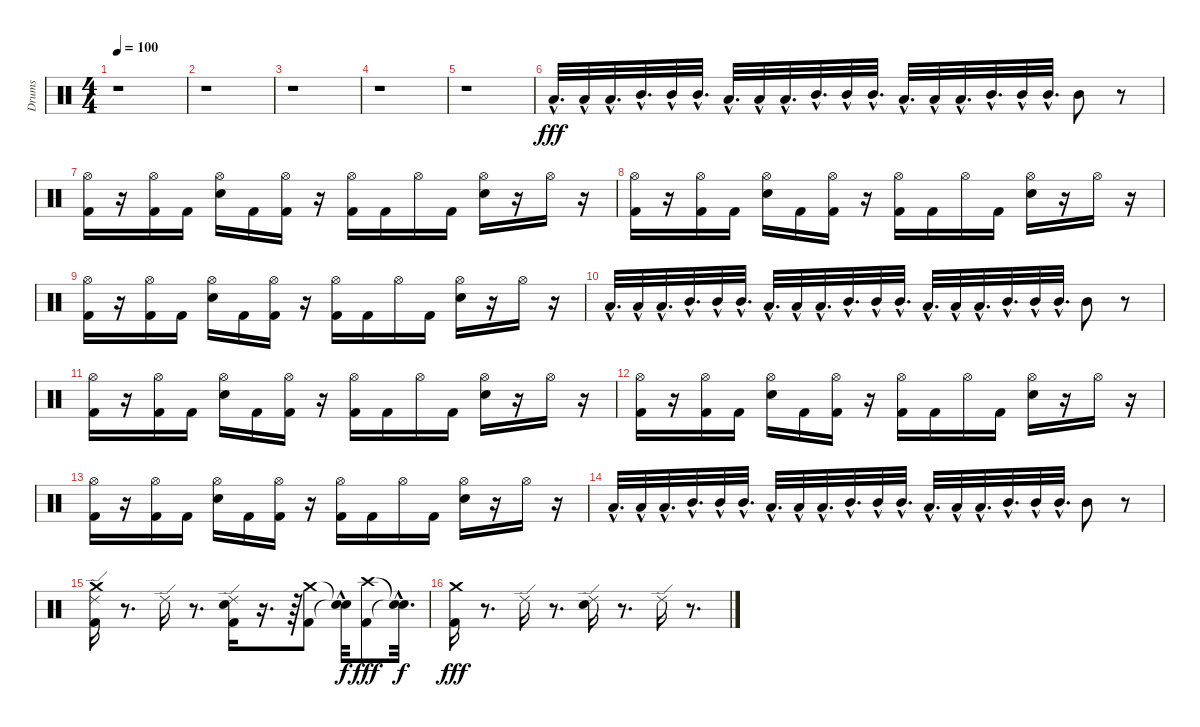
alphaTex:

\track ("Drums" "Drums") {instrument percussion}
\staff {score}
\articulation defaults
\ts (4 4)
\tempo 100
\clef neutral
\ks c
r.1{dy f} |
r.1 |
r.1 |
r.1 |
r.1 |
"Low Tom (hit)"{hac}.32{d dy fff} "Low Tom (hit)"{hac}.32 "Low Tom (hit)"{hac}.32{d} "Mid Tom (hit)"{hac}.32{d} "Mid Tom (hit)"{hac}.32 "Mid Tom (hit)"{hac}.32{d} "Low Tom (hit)"{hac}.32{d} "Low Tom (hit)"{hac}.32 "Low Tom (hit)"{hac}.32{d} "Mid Tom (hit)"{hac}.32{d} "Mid Tom (hit)"{hac}.32 "Mid Tom (hit)"{hac}.32{d} "Low Tom (hit)"{hac}.32{d} "Low Tom (hit)"{hac}.32 "Low Tom (hit)"{hac}.32{d} "Mid Tom (hit)"{hac}.32{d} "Mid Tom (hit)"{hac}.32 "Mid Tom (hit)"{hac}.32{d} "Mid Tom (hit)".8 r.8 |
("Hi-Hat (open)" "Kick (hit) 2").16 r.16 ("Hi-Hat (open)" "Kick (hit) 2").16 "Kick (hit) 2".16 ("Hi-Hat (open)" "Electric Snare (hit)").16 "Kick (hit) 2".16 ("Hi-Hat (open)" "Kick (hit) 2").16 r.16 ("Hi-Hat (open)" "Kick (hit) 2").16 "Kick (hit) 2".16 "Hi-Hat (open)".16 "Kick (hit) 2".16 ("Hi-Hat (open)" "Electric Snare (hit)").16 r.16 "Hi-Hat (open)".16 r.16 |
("Hi-Hat (open)" "Kick (hit) 2").16 r.16 ("Hi-Hat (open)" "Kick (hit) 2").16 "Kick (hit) 2".16 ("Hi-Hat (open)" "Electric Snare (hit)").16 "Kick (hit) 2".16 ("Hi-Hat (open)" "Kick (hit) 2").16 r.16 ("Hi-Hat (open)" "Kick (hit) 2").16 "Kick (hit) 2".16 "Hi-Hat (open)".16 "Kick (hit) 2".16 ("Hi-Hat (open)" "Electric Snare (hit)").16 r.16 "Hi-Hat (open)".16 r.16 |
("Hi-Hat (open)" "Kick (hit) 2").16 r.16 ("Hi-Hat (open)" "Kick (hit) 2").16 "Kick (hit) 2".16 ("Hi-Hat (open)" "Electric Snare (hit)").16 "Kick (hit) 2".16 ("Hi-Hat (open)" "Kick (hit) 2").16 r.16 ("Hi-Hat (open)" "Kick (hit) 2").16 "Kick (hit) 2".16 "Hi-Hat (open)".16 "Kick (hit) 2".16 ("Hi-Hat (open)" "Electric Snare (hit)").16 r.16 "Hi-Hat (open)".16 r.16 |
"Low Tom (hit)"{hac}.32{d} "Low Tom (hit)"{hac}.32 "Low Tom (hit)"{hac}.32{d} "Mid Tom (hit)"{hac}.32{d} "Mid Tom (hit)"{hac}.32 "Mid Tom (hit)"{hac}.32{d} "Low Tom (hit)"{hac}.32{d} "Low Tom (hit)"{hac}.32 "Low Tom (hit)"{hac}.32{d} "Mid Tom (hit)"{hac}.32{d} "Mid Tom (hit)"{hac}.32 "Mid Tom (hit)"{hac}.32{d} "Low Tom (hit)"{hac}.32{d} "Low Tom (hit)"{hac}.32 "Low Tom (hit)"{hac}.32{d} "Mid Tom (hit)"{hac}.32{d} "Mid Tom (hit)"{hac}.32 "Mid Tom (hit)"{hac}.32{d} "Mid Tom (hit)".8 r.8 |
("Hi-Hat (open)" "Kick (hit) 2").16 r.16 ("Hi-Hat (open)" "Kick (hit) 2").16 "Kick (hit) 2".16 ("Hi-Hat (open)" "Electric Snare (hit)").16 "Kick (hit) 2".16 ("Hi-Hat (open)" "Kick (hit) 2").16 r.16 ("Hi-Hat (open)" "Kick (hit) 2").16 "Kick (hit) 2".16 "Hi-Hat (open)".16 "Kick (hit) 2".16 ("Hi-Hat (open)" "Electric Snare (hit)").16 r.16 "Hi-Hat (open)".16 r.16 |
("Hi-Hat (open)" "Kick (hit) 2").16 r.16 ("Hi-Hat (open)" "Kick (hit) 2").16 "Kick (hit) 2".16 ("Hi-Hat (open)" "Electric Snare (hit)").16 "Kick (hit) 2".16 ("Hi-Hat (open)" "Kick (hit) 2").16 r.16 ("Hi-Hat (open)" "Kick (hit) 2").16 "Kick (hit) 2".16 "Hi-Hat (open)".16 "Kick (hit) 2".16 ("Hi-Hat (open)" "Electric Snare (hit)").16 r.16 "Hi-Hat (open)".16 r.16 |
("Hi-Hat (open)" "Kick (hit) 2").16 r.16 ("Hi-Hat (open)" "Kick (hit) 2").16 "Kick (hit) 2".16 ("Hi-Hat (open)" "Electric Snare (hit)").16 "Kick (hit) 2".16 ("Hi-Hat (open)" "Kick (hit) 2").16 r.16 ("Hi-Hat (open)" "Kick (hit) 2").16 "Kick (hit) 2".16 "Hi-Hat (open)".16 "Kick (hit) 2".16 ("Hi-Hat (open)" "Electric Snare (hit)").16 r.16 "Hi-Hat (open)".16 r.16 |
"Low Tom (hit)"{hac}.32{d} "Low Tom (hit)"{hac}.32 "Low Tom (hit)"{hac}.32{d} "Mid Tom (hit)"{hac}.32{d} "Mid Tom (hit)"{hac}.32 "Mid Tom (hit)"{hac}.32{d} "Low Tom (hit)"{hac}.32{d} "Low Tom (hit)"{hac}.32 "Low Tom (hit)"{hac}.32{d} "Mid Tom (hit)"{hac}.32{d} "Mid Tom (hit)"{hac}.32 "Mid Tom (hit)"{hac}.32{d} "Low Tom (hit)"{hac}.32{d} "Low Tom (hit)"{hac}.32 "Low Tom (hit)"{hac}.32{d} "Mid Tom (hit)"{hac}.32{d} "Mid Tom (hit)"{hac}.32 "Mid Tom (hit)"{hac}.32{d} "Mid Tom (hit)".8 r.8 |
("Ride (edge) 2" "Crash medium (hit)" "Kick (hit) 2").16 r.8{d} "Ride (edge) 2".16 r.8{d} ("Ride (edge) 2" "Electric Snare (hit)" "Kick (hit) 2").16 r.16{d} r.64 ("Crash medium (hit)" "Kick (hit) 2").8 ("Snare (hit)"{hac t} "Snare (hit)"{hac t}).32{dy f} ("Crash high (hit)" "Kick (hit) 2").8{dy fff} ("Snare (hit)"{hac t} "Snare (hit)"{hac t}).32{d dy f} |
("Crash medium (hit)" "Kick (hit) 2").16{dy fff} r.8{d} "Ride (edge) 2".16 r.8{d} ("Ride (edge) 2" "Electric Snare (hit)").16 r.8{d} "Ride (edge) 2".16 r.8{d}
